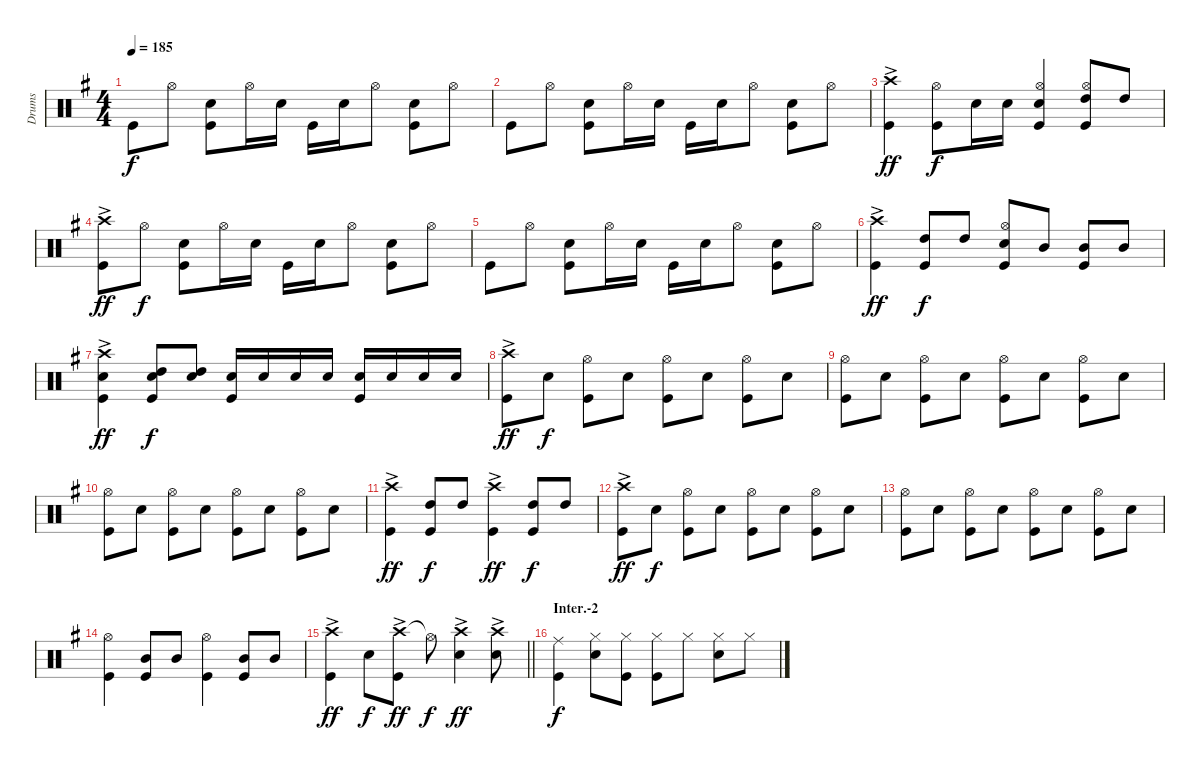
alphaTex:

\track ("Drums" "Drums") {instrument percussion}
\staff {score}
\articulation defaults
\ts (4 4)
\tempo 185
\clef neutral
\ks g "Kick (hit)".8{dy f} "Hi-Hat (open)".8
("Snare (hit) 2" "Kick (hit)").8 "Hi-Hat (open)".16 "Snare (hit) 2".16 "Kick (hit)".16 "Snare (hit) 2".16 "Hi-Hat (open)".8 ("Snare (hit) 2" "Kick (hit)").8 "Hi-Hat (open)".8 |
"Kick (hit)".8 "Hi-Hat (open)".8 ("Snare (hit) 2" "Kick (hit)").8 "Hi-Hat (open)".16 "Snare (hit) 2".16 "Kick (hit)".16 "Snare (hit) 2".16 "Hi-Hat (open)".8 ("Snare (hit) 2" "Kick (hit)").8 "Hi-Hat (open)".8 |
("Crash high (hit)"{ac} "Kick (hit)").4{dy ff} ("Hi-Hat (open)" "Kick (hit)").8{dy f} "Snare (hit) 2".16 "Snare (hit) 2".16 ("Hi-Hat (open)" "Snare (hit) 2" "Kick (hit)").4 ("Hi-Hat (open)" "High Tom (hit)" "Kick (hit)").8 "High Tom (hit)".8 |
("Crash high (hit)"{ac} "Kick (hit)").8{dy ff} "Hi-Hat (open)".8{dy f} ("Snare (hit) 2" "Kick (hit)").8 "Hi-Hat (open)".16 "Snare (hit) 2".16 "Kick (hit)".16 "Snare (hit) 2".16 "Hi-Hat (open)".8 ("Snare (hit) 2" "Kick (hit)").8 "Hi-Hat (open)".8 |
"Kick (hit)".8 "Hi-Hat (open)".8 ("Snare (hit) 2" "Kick (hit)").8 "Hi-Hat (open)".16 "Snare (hit) 2".16 "Kick (hit)".16 "Snare (hit) 2".16 "Hi-Hat (open)".8 ("Snare (hit) 2" "Kick (hit)").8 "Hi-Hat (open)".8 |
("Crash high (hit)"{ac} "Kick (hit)").4{dy ff} ("High Tom (hit)" "Kick (hit)").8{dy f} "High Tom (hit)".8 ("Hi-Hat (open)" "Snare (hit) 2" "Kick (hit)").8 "Mid Tom (hit)".8 ("Mid Tom (hit)" "Kick (hit)").8 "Mid Tom (hit)".8 |
("Crash high (hit)"{ac} "Snare (hit) 2" "Kick (hit)").4{dy ff} ("High Tom (hit)" "Snare (hit) 2" "Kick (hit)").8{dy f} ("High Tom (hit)" "Snare (hit) 2").8 ("Snare (hit) 2" "Kick (hit)").16 "Snare (hit) 2".16 "Snare (hit) 2".16 "Snare (hit) 2".16 ("Snare (hit) 2" "Kick (hit)").16 "Snare (hit) 2".16 "Snare (hit) 2".16 "Snare (hit) 2".16 |
("Crash high (hit)"{ac} "Kick (hit)").8{dy ff} "Snare (hit) 2".8{dy f} ("Hi-Hat (open)" "Kick (hit)").8 "Snare (hit) 2".8 ("Hi-Hat (open)" "Kick (hit)").8 "Snare (hit) 2".8 ("Hi-Hat (open)" "Kick (hit)").8 "Snare (hit) 2".8 |
("Hi-Hat (open)" "Kick (hit)").8 "Snare (hit) 2".8 ("Hi-Hat (open)" "Kick (hit)").8 "Snare (hit) 2".8 ("Hi-Hat (open)" "Kick (hit)").8 "Snare (hit) 2".8 ("Hi-Hat (open)" "Kick (hit)").8 "Snare (hit) 2".8 |
("Hi-Hat (open)" "Kick (hit)").8 "Snare (hit) 2".8 ("Hi-Hat (open)" "Kick (hit)").8 "Snare (hit) 2".8 ("Hi-Hat (open)" "Kick (hit)").8 "Snare (hit) 2".8 ("Hi-Hat (open)" "Kick (hit)").8 "Snare (hit) 2".8 |
("Crash high (hit)"{ac} "Kick (hit)").4{dy ff} ("High Tom (hit)" "Kick (hit)").8{dy f} "High Tom (hit)".8 ("Crash high (hit)"{ac} "Kick (hit)").4{dy ff} ("High Tom (hit)" "Kick (hit)").8{dy f} "High Tom (hit)".8 |
("Crash high (hit)"{ac} "Kick (hit)").8{dy ff} "Snare (hit) 2".8{dy f} ("Hi-Hat (open)" "Kick (hit)").8 "Snare (hit) 2".8 ("Hi-Hat (open)" "Kick (hit)").8 "Snare (hit) 2".8 ("Hi-Hat (open)" "Kick (hit)").8 "Snare (hit) 2".8 |
("Hi-Hat (open)" "Kick (hit)").8 "Snare (hit) 2".8 ("Hi-Hat (open)" "Kick (hit)").8 "Snare (hit) 2".8 ("Hi-Hat (open)" "Kick (hit)").8 "Snare (hit) 2".8 ("Hi-Hat (open)" "Kick (hit)").8 "Snare (hit) 2".8 |
("Hi-Hat (open)" "Kick (hit)").4 ("Mid Tom (hit)" "Kick (hit)").8 "Mid Tom (hit)".8 ("Hi-Hat (open)" "Kick (hit)").4 ("Mid Tom (hit)" "Kick (hit)").8 "Mid Tom (hit)".8 |
\barLineRight lightlight
("Crash high (hit)"{ac} "Kick (hit)").4{dy ff} "Snare (hit) 2".8{dy f} ("Crash high (hit)"{ac} "Kick (hit)").8{dy ff} "Hi-Hat (open)"{t}.8{dy f} ("Crash high (hit)"{ac} "Snare (hit) 2").4{dy ff} ("Crash high (hit)"{ac} "Snare (hit) 2").8 |
\section ("" "Inter.-2")
("Ride (middle)" "Kick (hit)").4{dy f} ("Hi-Hat (closed)" "Snare (hit) 2").8 ("Hi-Hat (closed)" "Kick (hit)").8 ("Hi-Hat (closed)" "Kick (hit)").8 "Hi-Hat (closed)".8 ("Hi-Hat (closed)" "Snare (hit) 2").8 "Hi-Hat (closed)".8
